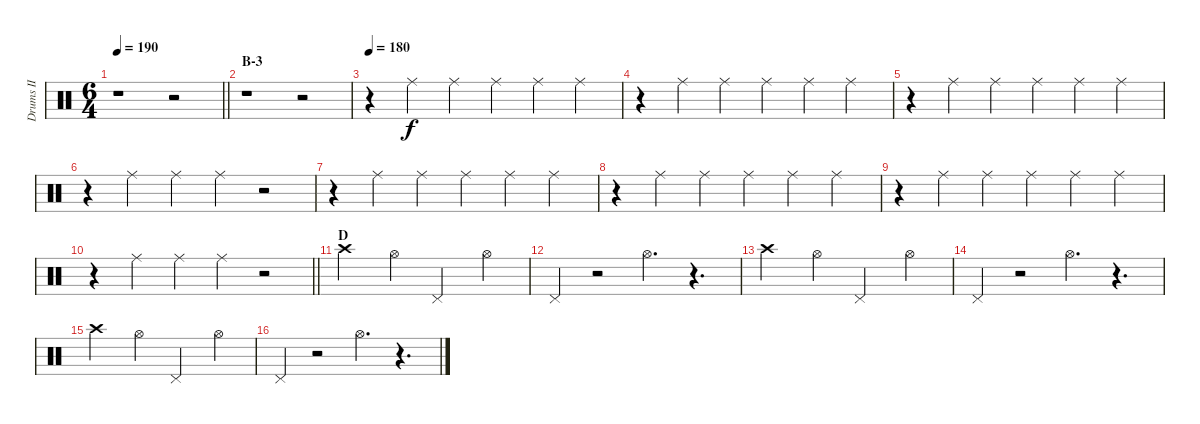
\track ("Drums II" "Drums II") {instrument percussion}
\staff {score}
\articulation defaults
\ts (6 4)
\tempo 190
\clef neutral
\barLineRight lightlight
\ks c
r.1{dy f} r.2 |
\section ("" "B-3")
r.1 r.2 |
\tempo 180
r.4 "Ride (middle)".4 "Ride (middle)".4 "Ride (middle)".4 "Ride (middle)".4 "Ride (middle)".4 |
r.4 "Ride (middle)".4 "Ride (middle)".4 "Ride (middle)".4 "Ride (middle)".4 "Ride (middle)".4 |
r.4 "Ride (middle)".4 "Ride (middle)".4 "Ride (middle)".4 "Ride (middle)".4 "Ride (middle)".4 |
r.4 "Ride (middle)".4 "Ride (middle)".4 "Ride (middle)".4 r.2 |
r.4 "Ride (middle)".4 "Ride (middle)".4 "Ride (middle)".4 "Ride (middle)".4 "Ride (middle)".4 |
r.4 "Ride (middle)".4 "Ride (middle)".4 "Ride (middle)".4 "Ride (middle)".4 "Ride (middle)".4 |
r.4 "Ride (middle)".4 "Ride (middle)".4 "Ride (middle)".4 "Ride (middle)".4 "Ride (middle)".4 |
\barLineRight lightlight
r.4 "Ride (middle)".4 "Ride (middle)".4 "Ride (middle)".4 r.2 |
\section ("" "D")
"Crash high (hit)".2 "Hi-Hat (open)".4 "Pedal Hi-Hat (hit)".2 "Hi-Hat (open)".4 |
"Pedal Hi-Hat (hit)".4 r.2 "Hi-Hat (open)".4{d} r.4{d} |
"Crash high (hit)".2 "Hi-Hat (open)".4 "Pedal Hi-Hat (hit)".2 "Hi-Hat (open)".4 |
"Pedal Hi-Hat (hit)".4 r.2 "Hi-Hat (open)".4{d} r.4{d} |
"Crash high (hit)".2 "Hi-Hat (open)".4 "Pedal Hi-Hat (hit)".2 "Hi-Hat (open)".4 |
"Pedal Hi-Hat (hit)".4 r.2 "Hi-Hat (open)".4{d} r.4{d}
